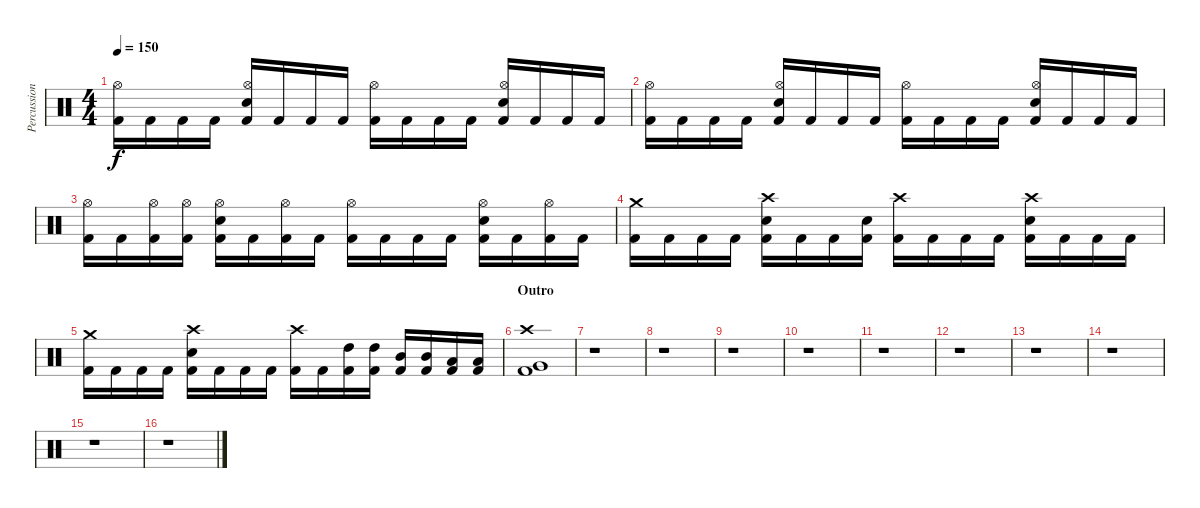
\track ("Percussion" "Percussion") {instrument percussion}
\staff {score}
\articulation defaults
\ts (4 4)
\tempo 150
\clef neutral
\ks c
("Kick (hit) 2" "Hi-Hat (open)").16{dy f} "Kick (hit) 2".16 "Kick (hit) 2".16 "Kick (hit) 2".16 ("Kick (hit) 2" "Electric Snare (hit)" "Hi-Hat (open)").16 "Kick (hit) 2".16 "Kick (hit) 2".16 "Kick (hit) 2".16 ("Kick (hit) 2" "Hi-Hat (open)").16 "Kick (hit) 2".16 "Kick (hit) 2".16 "Kick (hit) 2".16 ("Kick (hit) 2" "Electric Snare (hit)" "Hi-Hat (open)").16 "Kick (hit) 2".16 "Kick (hit) 2".16 "Kick (hit) 2".16 |
("Kick (hit) 2" "Hi-Hat (open)").16 "Kick (hit) 2".16 "Kick (hit) 2".16 "Kick (hit) 2".16 ("Kick (hit) 2" "Electric Snare (hit)" "Hi-Hat (open)").16 "Kick (hit) 2".16 "Kick (hit) 2".16 "Kick (hit) 2".16 ("Kick (hit) 2" "Hi-Hat (open)").16 "Kick (hit) 2".16 "Kick (hit) 2".16 "Kick (hit) 2".16 ("Kick (hit) 2" "Electric Snare (hit)" "Hi-Hat (open)").16 "Kick (hit) 2".16 "Kick (hit) 2".16 "Kick (hit) 2".16 |
("Kick (hit) 2" "Hi-Hat (open)").16 "Kick (hit) 2".16 ("Kick (hit) 2" "Hi-Hat (open)").16 ("Kick (hit) 2" "Hi-Hat (open)").16 ("Kick (hit) 2" "Electric Snare (hit)" "Hi-Hat (open)").16 "Kick (hit) 2".16 ("Kick (hit) 2" "Hi-Hat (open)").16 "Kick (hit) 2".16 ("Kick (hit) 2" "Hi-Hat (open)").16 "Kick (hit) 2".16 "Kick (hit) 2".16 "Kick (hit) 2".16 ("Kick (hit) 2" "Electric Snare (hit)" "Hi-Hat (open)").16 "Kick (hit) 2".16 ("Kick (hit) 2" "Hi-Hat (open)").16 "Kick (hit) 2".16 |
("Kick (hit) 2" "Crash medium (hit)").16 "Kick (hit) 2".16 "Kick (hit) 2".16 "Kick (hit) 2".16 ("Kick (hit) 2" "Electric Snare (hit)" "Crash high (hit)").16 "Kick (hit) 2".16 "Kick (hit) 2".16 ("Kick (hit) 2" "Electric Snare (hit)").16 ("Kick (hit) 2" "Crash high (hit)").16 "Kick (hit) 2".16 "Kick (hit) 2".16 "Kick (hit) 2".16 ("Kick (hit) 2" "Electric Snare (hit)" "Crash high (hit)").16 "Kick (hit) 2".16 "Kick (hit) 2".16 "Kick (hit) 2".16 |
("Kick (hit) 2" "Crash medium (hit)").16 "Kick (hit) 2".16 "Kick (hit) 2".16 "Kick (hit) 2".16 ("Kick (hit) 2" "Electric Snare (hit)" "Crash high (hit)").16 "Kick (hit) 2".16 "Kick (hit) 2".16 "Kick (hit) 2".16 ("Kick (hit) 2" "Crash high (hit)").16 "Kick (hit) 2".16 ("Kick (hit) 2" "High Tom (hit)").16 ("Kick (hit) 2" "High Tom (hit)").16 ("Kick (hit) 2" "Mid Tom (hit)").16 ("Kick (hit) 2" "Mid Tom (hit)").16 ("Kick (hit) 2" "Low Tom (hit)").16 ("Kick (hit) 2" "Low Tom (hit)").16 |
\section ("" "Outro")
("Kick (hit) 2" "Very Low Tom (hit)" "Crash high (hit)").1 |
r.1 |
r.1 |
r.1 |
r.1 |
r.1 |
r.1 |
r.1 |
r.1 |
r.1 |
r.1
